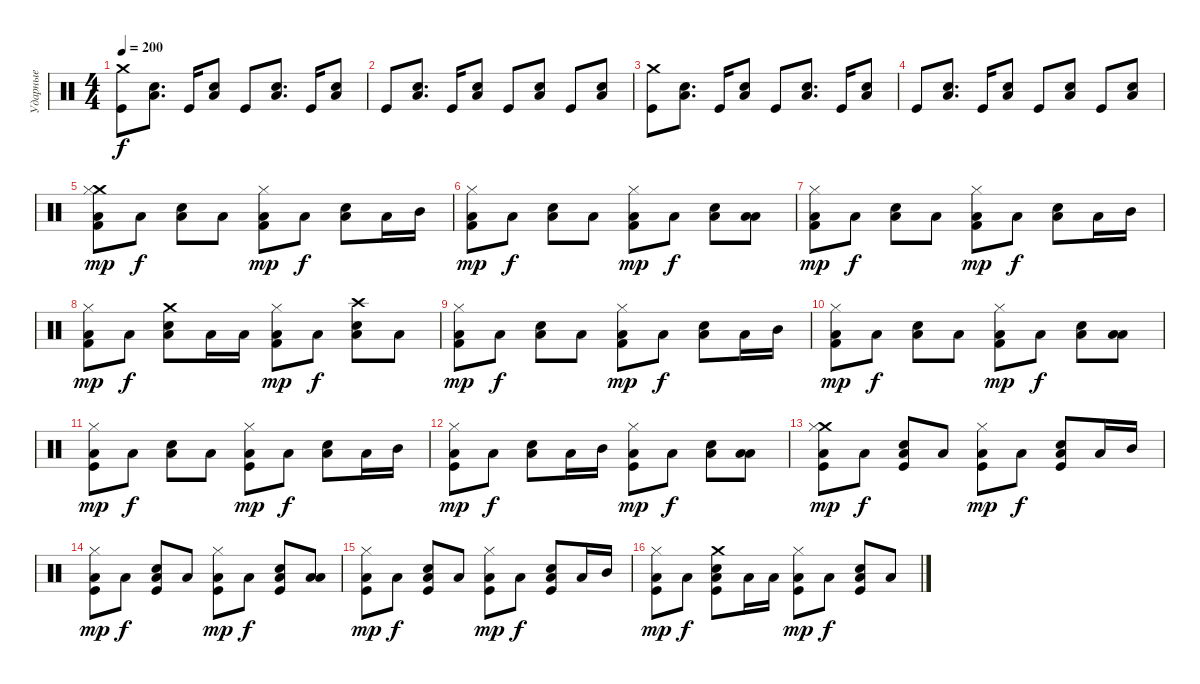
\track ("Ударные" "Ударные") {instrument percussion}
\staff {score}
\articulation defaults
\ts (4 4)
\tempo 200
\clef neutral
\ks c
("Crash medium (hit)" "Kick (hit)").8{dy f} ("Low Floor Tom (hit)" "Snare (hit) 2").8{d} "Kick (hit)".16 ("Low Floor Tom (hit)" "Snare (hit) 2").8 "Kick (hit)".8 ("Low Floor Tom (hit)" "Snare (hit) 2").8{d} "Kick (hit)".16 ("Low Floor Tom (hit)" "Snare (hit) 2").8 |
"Kick (hit)".8 ("Low Floor Tom (hit)" "Snare (hit) 2").8{d} "Kick (hit)".16 ("Low Floor Tom (hit)" "Snare (hit) 2").8 "Kick (hit)".8 ("Low Floor Tom (hit)" "Snare (hit) 2").8 "Kick (hit)".8 ("Low Floor Tom (hit)" "Snare (hit) 2").8 |
("Crash medium (hit)" "Kick (hit)").8 ("Low Floor Tom (hit)" "Snare (hit) 2").8{d} "Kick (hit)".16 ("Low Floor Tom (hit)" "Snare (hit) 2").8 "Kick (hit)".8 ("Low Floor Tom (hit)" "Snare (hit) 2").8{d} "Kick (hit)".16 ("Low Floor Tom (hit)" "Snare (hit) 2").8 |
"Kick (hit)".8 ("Low Floor Tom (hit)" "Snare (hit) 2").8{d} "Kick (hit)".16 ("Low Floor Tom (hit)" "Snare (hit) 2").8 "Kick (hit)".8 ("Low Floor Tom (hit)" "Snare (hit) 2").8 "Kick (hit)".8 ("Low Floor Tom (hit)" "Snare (hit) 2").8 |
("Crash medium (hit)" "Low Floor Tom (hit)" "Kick (hit) 2" "Hi-Hat (closed)").8{dy mp} "Low Floor Tom (hit)".8{dy f} ("Snare (hit) 2" "Low Floor Tom (hit)").8 "Low Floor Tom (hit)".8 ("Low Floor Tom (hit)" "Kick (hit) 2" "Hi-Hat (closed)").8{dy mp} "Low Floor Tom (hit)".8{dy f} ("Snare (hit) 2" "Low Floor Tom (hit)").8 "Low Floor Tom (hit)".16 "Mid Tom (hit)".16 |
("Low Floor Tom (hit)" "Kick (hit) 2" "Hi-Hat (closed)").8{dy mp} "Low Floor Tom (hit)".8{dy f} ("Snare (hit) 2" "Low Floor Tom (hit)").8 "Low Floor Tom (hit)".8 ("Low Floor Tom (hit)" "Kick (hit) 2" "Hi-Hat (closed)").8{dy mp} "Low Floor Tom (hit)".8{dy f} ("Snare (hit) 2" "Low Floor Tom (hit)").8 ("Low Tom (hit)" "Low Floor Tom (hit)").8 |
("Low Floor Tom (hit)" "Kick (hit) 2" "Hi-Hat (closed)").8{dy mp} "Low Floor Tom (hit)".8{dy f} ("Snare (hit) 2" "Low Floor Tom (hit)").8 "Low Floor Tom (hit)".8 ("Low Floor Tom (hit)" "Kick (hit) 2" "Hi-Hat (closed)").8{dy mp} "Low Floor Tom (hit)".8{dy f} ("Snare (hit) 2" "Low Floor Tom (hit)").8 "Low Floor Tom (hit)".16 "Mid Tom (hit)".16 |
("Low Floor Tom (hit)" "Kick (hit) 2" "Hi-Hat (closed)").8{dy mp} "Low Floor Tom (hit)".8{dy f} ("Crash medium (hit)" "Snare (hit) 2" "Low Floor Tom (hit)").8 "Low Floor Tom (hit)".16 "Low Tom (hit)".16 ("Low Floor Tom (hit)" "Kick (hit) 2" "Hi-Hat (closed)").8{dy mp} "Low Floor Tom (hit)".8{dy f} ("Crash high (hit)" "Snare (hit) 2" "Low Floor Tom (hit)").8 "Low Floor Tom (hit)".8 |
("Low Floor Tom (hit)" "Kick (hit) 2" "Hi-Hat (closed)").8{dy mp} "Low Floor Tom (hit)".8{dy f} ("Snare (hit) 2" "Low Floor Tom (hit)").8 "Low Floor Tom (hit)".8 ("Low Floor Tom (hit)" "Kick (hit) 2" "Hi-Hat (closed)").8{dy mp} "Low Floor Tom (hit)".8{dy f} ("Snare (hit) 2" "Low Floor Tom (hit)").8 "Low Floor Tom (hit)".16 "Mid Tom (hit)".16 |
("Low Floor Tom (hit)" "Kick (hit) 2" "Hi-Hat (closed)").8{dy mp} "Low Floor Tom (hit)".8{dy f} ("Snare (hit) 2" "Low Floor Tom (hit)").8 "Low Floor Tom (hit)".8 ("Low Floor Tom (hit)" "Kick (hit) 2" "Hi-Hat (closed)").8{dy mp} "Low Floor Tom (hit)".8{dy f} ("Snare (hit) 2" "Low Floor Tom (hit)").8 ("Low Tom (hit)" "Low Floor Tom (hit)").8 |
("Low Floor Tom (hit)" "Kick (hit)" "Hi-Hat (closed)").8{dy mp} "Low Floor Tom (hit)".8{dy f} ("Snare (hit) 2" "Low Floor Tom (hit)").8 "Low Floor Tom (hit)".8 ("Low Floor Tom (hit)" "Kick (hit)" "Hi-Hat (closed)").8{dy mp} "Low Floor Tom (hit)".8{dy f} ("Snare (hit) 2" "Low Floor Tom (hit)").8 "Low Floor Tom (hit)".16 "Mid Tom (hit)".16 |
("Low Floor Tom (hit)" "Kick (hit)" "Hi-Hat (closed)").8{dy mp} "Low Floor Tom (hit)".8{dy f} ("Snare (hit) 2" "Low Floor Tom (hit)").8 "Low Floor Tom (hit)".16 "Mid Tom (hit)".16 ("Low Floor Tom (hit)" "Kick (hit)" "Hi-Hat (closed)").8{dy mp} "Low Floor Tom (hit)".8{dy f} ("Snare (hit) 2" "Low Floor Tom (hit)").8 ("Low Tom (hit)" "Low Floor Tom (hit)").8 |
("Crash medium (hit)" "Low Floor Tom (hit)" "Kick (hit)" "Hi-Hat (closed)").8{dy mp} "Low Floor Tom (hit)".8{dy f} ("Snare (hit) 2" "Low Floor Tom (hit)" "Kick (hit)").8 "Low Floor Tom (hit)".8 ("Low Floor Tom (hit)" "Kick (hit)" "Hi-Hat (closed)").8{dy mp} "Low Floor Tom (hit)".8{dy f} ("Snare (hit) 2" "Low Floor Tom (hit)" "Kick (hit)").8 "Low Floor Tom (hit)".16 "Mid Tom (hit)".16 |
("Low Floor Tom (hit)" "Kick (hit)" "Hi-Hat (closed)").8{dy mp} "Low Floor Tom (hit)".8{dy f} ("Snare (hit) 2" "Low Floor Tom (hit)" "Kick (hit)").8 "Low Floor Tom (hit)".8 ("Low Floor Tom (hit)" "Kick (hit)" "Hi-Hat (closed)").8{dy mp} "Low Floor Tom (hit)".8{dy f} ("Snare (hit) 2" "Low Floor Tom (hit)" "Kick (hit)").8 ("Low Tom (hit)" "Low Floor Tom (hit)").8 |
("Low Floor Tom (hit)" "Kick (hit)" "Hi-Hat (closed)").8{dy mp} "Low Floor Tom (hit)".8{dy f} ("Snare (hit) 2" "Low Floor Tom (hit)" "Kick (hit)").8 "Low Floor Tom (hit)".8 ("Low Floor Tom (hit)" "Kick (hit)" "Hi-Hat (closed)").8{dy mp} "Low Floor Tom (hit)".8{dy f} ("Snare (hit) 2" "Low Floor Tom (hit)" "Kick (hit)").8 "Low Floor Tom (hit)".16 "Mid Tom (hit)".16 |
("Low Floor Tom (hit)" "Kick (hit)" "Hi-Hat (closed)").8{dy mp} "Low Floor Tom (hit)".8{dy f} ("Crash medium (hit)" "Snare (hit) 2" "Low Floor Tom (hit)" "Kick (hit)").8 "Low Floor Tom (hit)".16 "Low Tom (hit)".16 ("Low Floor Tom (hit)" "Kick (hit)" "Hi-Hat (closed)").8{dy mp} "Low Floor Tom (hit)".8{dy f} ("Snare (hit) 2" "Low Floor Tom (hit)" "Kick (hit)").8 "Low Floor Tom (hit)".8
